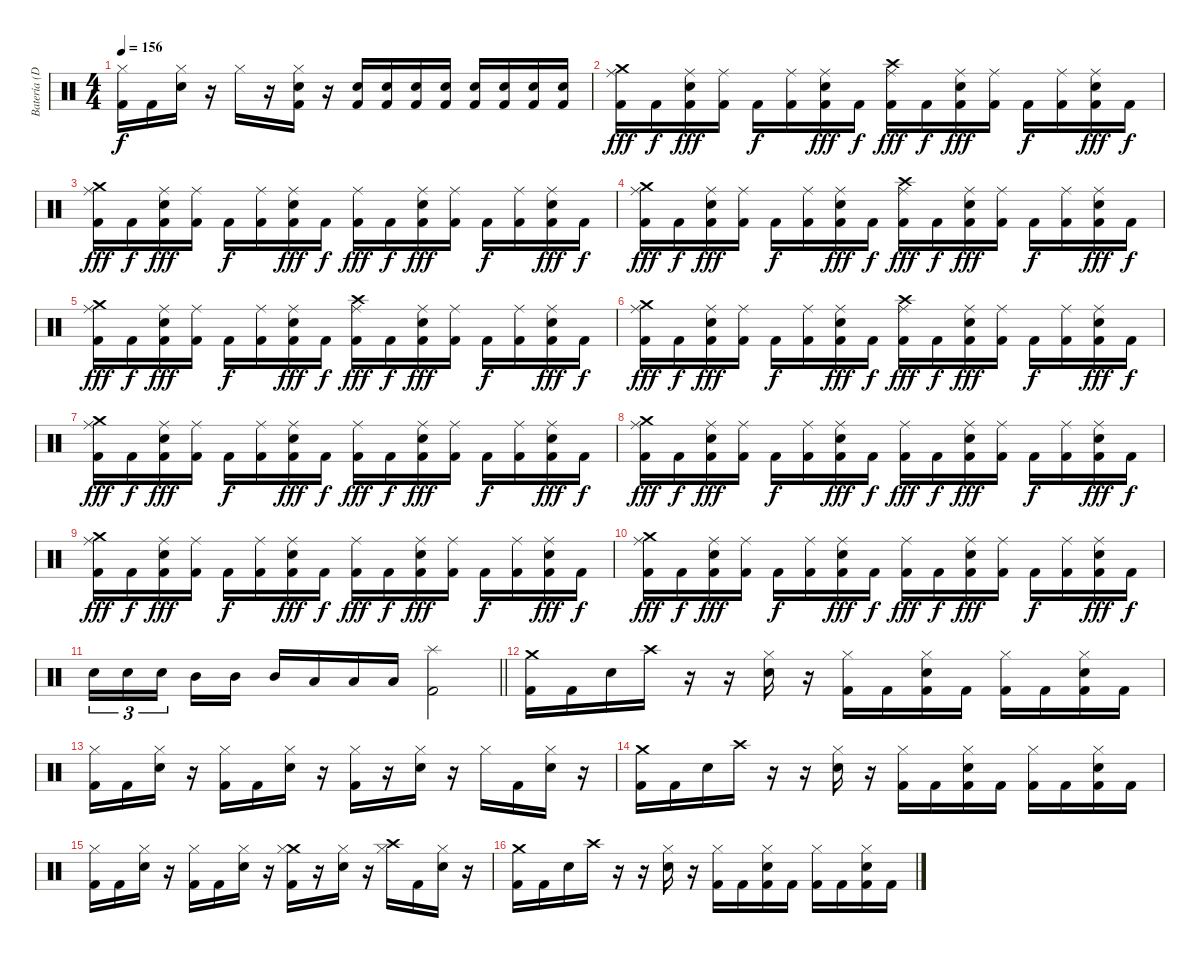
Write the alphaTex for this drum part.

\track ("Batería (Dani)" "Batería (D") {instrument percussion}
\staff {score}
\articulation defaults
\ts (4 4)
\tempo 156
\clef neutral
\ks c
("Hi-Hat (closed)" "Kick (hit) 2").16{dy f} "Kick (hit) 2".16 ("Hi-Hat (closed)" "Electric Snare (hit)").16 r.16 "Hi-Hat (closed)".16 r.16 ("Hi-Hat (closed)" "Electric Snare (hit)" "Kick (hit) 2").16 r.16 ("Electric Snare (hit)" "Kick (hit) 2").16 ("Electric Snare (hit)" "Kick (hit) 2").16 ("Electric Snare (hit)" "Kick (hit) 2").16 ("Electric Snare (hit)" "Kick (hit) 2").16 ("Electric Snare (hit)" "Kick (hit) 2").16 ("Electric Snare (hit)" "Kick (hit) 2").16 ("Electric Snare (hit)" "Kick (hit) 2").16 ("Electric Snare (hit)" "Kick (hit) 2").16 |
("Crash medium (hit)" "Ride (middle)" "Kick (hit) 2").16{dy fff} "Kick (hit) 2".16{dy f} ("Ride (middle)" "Electric Snare (hit)" "Kick (hit) 2").16{dy fff} ("Ride (middle)" "Kick (hit) 2").16 "Kick (hit) 2".16{dy f} ("Ride (middle)" "Kick (hit) 2").16 ("Ride (middle)" "Electric Snare (hit)" "Kick (hit) 2").16{dy fff} "Kick (hit) 2".16{dy f} ("Crash high (hit)" "Ride (middle)" "Kick (hit) 2").16{dy fff} "Kick (hit) 2".16{dy f} ("Ride (middle)" "Electric Snare (hit)" "Kick (hit) 2").16{dy fff} ("Ride (middle)" "Kick (hit) 2").16 "Kick (hit) 2".16{dy f} ("Ride (middle)" "Kick (hit) 2").16 ("Ride (middle)" "Electric Snare (hit)" "Kick (hit) 2").16{dy fff} "Kick (hit) 2".16{dy f} |
("Crash medium (hit)" "Ride (middle)" "Kick (hit) 2").16{dy fff} "Kick (hit) 2".16{dy f} ("Ride (middle)" "Electric Snare (hit)" "Kick (hit) 2").16{dy fff} ("Ride (middle)" "Kick (hit) 2").16 "Kick (hit) 2".16{dy f} ("Ride (middle)" "Kick (hit) 2").16 ("Ride (middle)" "Electric Snare (hit)" "Kick (hit) 2").16{dy fff} "Kick (hit) 2".16{dy f} ("Ride (middle)" "Kick (hit) 2").16{dy fff} "Kick (hit) 2".16{dy f} ("Ride (middle)" "Electric Snare (hit)" "Kick (hit) 2").16{dy fff} ("Ride (middle)" "Kick (hit) 2").16 "Kick (hit) 2".16{dy f} ("Ride (middle)" "Kick (hit) 2").16 ("Ride (middle)" "Electric Snare (hit)" "Kick (hit) 2").16{dy fff} "Kick (hit) 2".16{dy f} |
("Crash medium (hit)" "Ride (middle)" "Kick (hit) 2").16{dy fff} "Kick (hit) 2".16{dy f} ("Ride (middle)" "Electric Snare (hit)" "Kick (hit) 2").16{dy fff} ("Ride (middle)" "Kick (hit) 2").16 "Kick (hit) 2".16{dy f} ("Ride (middle)" "Kick (hit) 2").16 ("Ride (middle)" "Electric Snare (hit)" "Kick (hit) 2").16{dy fff} "Kick (hit) 2".16{dy f} ("Crash high (hit)" "Ride (middle)" "Kick (hit) 2").16{dy fff} "Kick (hit) 2".16{dy f} ("Ride (middle)" "Electric Snare (hit)" "Kick (hit) 2").16{dy fff} ("Ride (middle)" "Kick (hit) 2").16 "Kick (hit) 2".16{dy f} ("Ride (middle)" "Kick (hit) 2").16 ("Ride (middle)" "Electric Snare (hit)" "Kick (hit) 2").16{dy fff} "Kick (hit) 2".16{dy f} |
("Crash medium (hit)" "Ride (middle)" "Kick (hit) 2").16{dy fff} "Kick (hit) 2".16{dy f} ("Ride (middle)" "Electric Snare (hit)" "Kick (hit) 2").16{dy fff} ("Ride (middle)" "Kick (hit) 2").16 "Kick (hit) 2".16{dy f} ("Ride (middle)" "Kick (hit) 2").16 ("Ride (middle)" "Electric Snare (hit)" "Kick (hit) 2").16{dy fff} "Kick (hit) 2".16{dy f} ("Crash high (hit)" "Ride (middle)" "Kick (hit) 2").16{dy fff} "Kick (hit) 2".16{dy f} ("Ride (middle)" "Electric Snare (hit)" "Kick (hit) 2").16{dy fff} ("Ride (middle)" "Kick (hit) 2").16 "Kick (hit) 2".16{dy f} ("Ride (middle)" "Kick (hit) 2").16 ("Ride (middle)" "Electric Snare (hit)" "Kick (hit) 2").16{dy fff} "Kick (hit) 2".16{dy f} |
("Crash medium (hit)" "Ride (middle)" "Kick (hit) 2").16{dy fff} "Kick (hit) 2".16{dy f} ("Ride (middle)" "Electric Snare (hit)" "Kick (hit) 2").16{dy fff} ("Ride (middle)" "Kick (hit) 2").16 "Kick (hit) 2".16{dy f} ("Ride (middle)" "Kick (hit) 2").16 ("Ride (middle)" "Electric Snare (hit)" "Kick (hit) 2").16{dy fff} "Kick (hit) 2".16{dy f} ("Crash high (hit)" "Ride (middle)" "Kick (hit) 2").16{dy fff} "Kick (hit) 2".16{dy f} ("Ride (middle)" "Electric Snare (hit)" "Kick (hit) 2").16{dy fff} ("Ride (middle)" "Kick (hit) 2").16 "Kick (hit) 2".16{dy f} ("Ride (middle)" "Kick (hit) 2").16 ("Ride (middle)" "Electric Snare (hit)" "Kick (hit) 2").16{dy fff} "Kick (hit) 2".16{dy f} |
("Crash medium (hit)" "Ride (middle)" "Kick (hit) 2").16{dy fff} "Kick (hit) 2".16{dy f} ("Ride (middle)" "Electric Snare (hit)" "Kick (hit) 2").16{dy fff} ("Ride (middle)" "Kick (hit) 2").16 "Kick (hit) 2".16{dy f} ("Ride (middle)" "Kick (hit) 2").16 ("Ride (middle)" "Electric Snare (hit)" "Kick (hit) 2").16{dy fff} "Kick (hit) 2".16{dy f} ("Ride (middle)" "Kick (hit) 2").16{dy fff} "Kick (hit) 2".16{dy f} ("Ride (middle)" "Electric Snare (hit)" "Kick (hit) 2").16{dy fff} ("Ride (middle)" "Kick (hit) 2").16 "Kick (hit) 2".16{dy f} ("Ride (middle)" "Kick (hit) 2").16 ("Ride (middle)" "Electric Snare (hit)" "Kick (hit) 2").16{dy fff} "Kick (hit) 2".16{dy f} |
("Crash medium (hit)" "Ride (middle)" "Kick (hit) 2").16{dy fff} "Kick (hit) 2".16{dy f} ("Ride (middle)" "Electric Snare (hit)" "Kick (hit) 2").16{dy fff} ("Ride (middle)" "Kick (hit) 2").16 "Kick (hit) 2".16{dy f} ("Ride (middle)" "Kick (hit) 2").16 ("Ride (middle)" "Electric Snare (hit)" "Kick (hit) 2").16{dy fff} "Kick (hit) 2".16{dy f} ("Ride (middle)" "Kick (hit) 2").16{dy fff} "Kick (hit) 2".16{dy f} ("Ride (middle)" "Electric Snare (hit)" "Kick (hit) 2").16{dy fff} ("Ride (middle)" "Kick (hit) 2").16 "Kick (hit) 2".16{dy f} ("Ride (middle)" "Kick (hit) 2").16 ("Ride (middle)" "Electric Snare (hit)" "Kick (hit) 2").16{dy fff} "Kick (hit) 2".16{dy f} |
("Crash medium (hit)" "Ride (middle)" "Kick (hit) 2").16{dy fff} "Kick (hit) 2".16{dy f} ("Ride (middle)" "Electric Snare (hit)" "Kick (hit) 2").16{dy fff} ("Ride (middle)" "Kick (hit) 2").16 "Kick (hit) 2".16{dy f} ("Ride (middle)" "Kick (hit) 2").16 ("Ride (middle)" "Electric Snare (hit)" "Kick (hit) 2").16{dy fff} "Kick (hit) 2".16{dy f} ("Ride (middle)" "Kick (hit) 2").16{dy fff} "Kick (hit) 2".16{dy f} ("Ride (middle)" "Electric Snare (hit)" "Kick (hit) 2").16{dy fff} ("Ride (middle)" "Kick (hit) 2").16 "Kick (hit) 2".16{dy f} ("Ride (middle)" "Kick (hit) 2").16 ("Ride (middle)" "Electric Snare (hit)" "Kick (hit) 2").16{dy fff} "Kick (hit) 2".16{dy f} |
("Crash medium (hit)" "Ride (middle)" "Kick (hit) 2").16{dy fff} "Kick (hit) 2".16{dy f} ("Ride (middle)" "Electric Snare (hit)" "Kick (hit) 2").16{dy fff} ("Ride (middle)" "Kick (hit) 2").16 "Kick (hit) 2".16{dy f} ("Ride (middle)" "Kick (hit) 2").16 ("Ride (middle)" "Electric Snare (hit)" "Kick (hit) 2").16{dy fff} "Kick (hit) 2".16{dy f} ("Ride (middle)" "Kick (hit) 2").16{dy fff} "Kick (hit) 2".16{dy f} ("Ride (middle)" "Electric Snare (hit)" "Kick (hit) 2").16{dy fff} ("Ride (middle)" "Kick (hit) 2").16 "Kick (hit) 2".16{dy f} ("Ride (middle)" "Kick (hit) 2").16 ("Ride (middle)" "Electric Snare (hit)" "Kick (hit) 2").16{dy fff} "Kick (hit) 2".16{dy f} |
\barLineRight lightlight "Electric Snare (hit)".16{tu (3 2)} "Electric Snare (hit)".16{tu (3 2)} "Electric Snare (hit)".16{tu (3 2) beam splitsecondary} "Mid Tom (hit)".16 "Mid Tom (hit)".16 "Mid Tom (hit)".16 "Low Tom (hit)".16 "Low Tom (hit)".16 "Low Tom (hit)".16
("Splash (hit)" "Kick (hit) 2").2 |
("Crash medium (hit)" "Kick (hit) 2").16 "Kick (hit) 2".16 "Electric Snare (hit)".16 "Crash high (hit)".16 r.16 r.16 ("Hi-Hat (closed)" "Electric Snare (hit)").16 r.16 ("Hi-Hat (closed)" "Kick (hit) 2").16 "Kick (hit) 2".16 ("Hi-Hat (closed)" "Electric Snare (hit)" "Kick (hit) 2").16 "Kick (hit) 2".16 ("Hi-Hat (closed)" "Kick (hit) 2").16 "Kick (hit) 2".16 ("Hi-Hat (closed)" "Electric Snare (hit)" "Kick (hit) 2").16 "Kick (hit) 2".16 |
("Hi-Hat (closed)" "Kick (hit) 2").16 "Kick (hit) 2".16 ("Hi-Hat (closed)" "Electric Snare (hit)").16 r.16 ("Hi-Hat (closed)" "Kick (hit) 2").16 "Kick (hit) 2".16 ("Hi-Hat (closed)" "Electric Snare (hit)").16 r.16 ("Hi-Hat (closed)" "Kick (hit) 2").16 r.16 ("Hi-Hat (closed)" "Electric Snare (hit)").16 r.16 "Hi-Hat (closed)".16 "Kick (hit) 2".16 ("Hi-Hat (closed)" "Electric Snare (hit)").16 r.16 |
("Crash medium (hit)" "Kick (hit) 2").16 "Kick (hit) 2".16 "Electric Snare (hit)".16 "Crash high (hit)".16 r.16 r.16 ("Hi-Hat (closed)" "Electric Snare (hit)").16 r.16 ("Hi-Hat (closed)" "Kick (hit) 2").16 "Kick (hit) 2".16 ("Hi-Hat (closed)" "Electric Snare (hit)" "Kick (hit) 2").16 "Kick (hit) 2".16 ("Hi-Hat (closed)" "Kick (hit) 2").16 "Kick (hit) 2".16 ("Hi-Hat (closed)" "Electric Snare (hit)" "Kick (hit) 2").16 "Kick (hit) 2".16 |
("Hi-Hat (closed)" "Kick (hit) 2").16 "Kick (hit) 2".16 ("Hi-Hat (closed)" "Electric Snare (hit)").16 r.16 ("Hi-Hat (closed)" "Kick (hit) 2").16 "Kick (hit) 2".16 ("Hi-Hat (closed)" "Electric Snare (hit)").16 r.16 ("Crash medium (hit)" "Hi-Hat (closed)" "Kick (hit) 2").16 r.16 ("Hi-Hat (closed)" "Electric Snare (hit)").16 r.16 ("Crash high (hit)" "Hi-Hat (closed)").16 "Kick (hit) 2".16 ("Hi-Hat (closed)" "Electric Snare (hit)").16 r.16 |
("Crash medium (hit)" "Kick (hit) 2").16 "Kick (hit) 2".16 "Electric Snare (hit)".16 "Crash high (hit)".16 r.16 r.16 ("Hi-Hat (closed)" "Electric Snare (hit)").16 r.16 ("Hi-Hat (closed)" "Kick (hit) 2").16 "Kick (hit) 2".16 ("Hi-Hat (closed)" "Electric Snare (hit)" "Kick (hit) 2").16 "Kick (hit) 2".16 ("Hi-Hat (closed)" "Kick (hit) 2").16 "Kick (hit) 2".16 ("Hi-Hat (closed)" "Electric Snare (hit)" "Kick (hit) 2").16 "Kick (hit) 2".16
